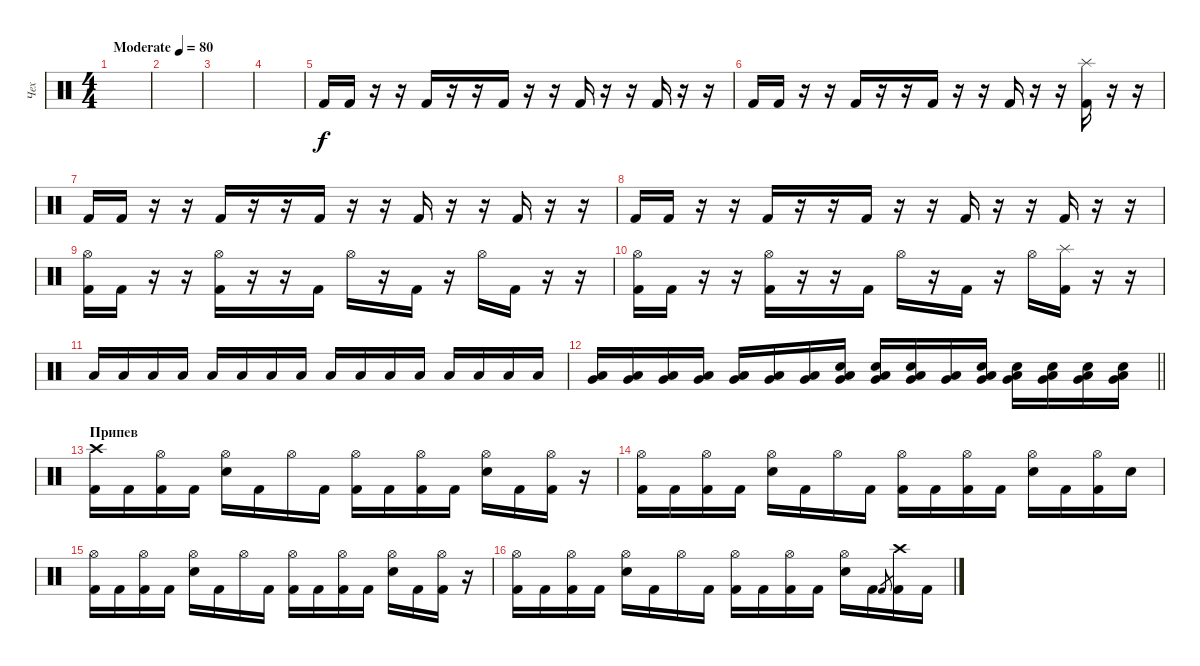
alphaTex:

\track ("Чех" "Чех") {instrument percussion}
\staff {score}
\articulation defaults
\ts (4 4)
\tempo (80 "Moderate")
\clef neutral
\ks c
|
|
|
|
"Kick (hit) 2".16 "Kick (hit) 2".16 r.16 r.16 "Kick (hit) 2".16 r.16 r.16 "Kick (hit) 2".16 r.16 r.16 "Kick (hit) 2".16 r.16 r.16 "Kick (hit) 2".16 r.16 r.16 |
"Kick (hit) 2".16 "Kick (hit) 2".16 r.16 r.16 "Kick (hit) 2".16 r.16 r.16 "Kick (hit) 2".16 r.16 r.16 "Kick (hit) 2".16 r.16 r.16 ("Kick (hit) 2" "Splash (hit)").16 r.16 r.16 |
"Kick (hit) 2".16 "Kick (hit) 2".16 r.16 r.16 "Kick (hit) 2".16 r.16 r.16 "Kick (hit) 2".16 r.16 r.16 "Kick (hit) 2".16 r.16 r.16 "Kick (hit) 2".16 r.16 r.16 |
"Kick (hit) 2".16 "Kick (hit) 2".16 r.16 r.16 "Kick (hit) 2".16 r.16 r.16 "Kick (hit) 2".16 r.16 r.16 "Kick (hit) 2".16 r.16 r.16 "Kick (hit) 2".16 r.16 r.16 |
("Kick (hit) 2" "Hi-Hat (open)").16 "Kick (hit) 2".16 r.16 r.16 ("Kick (hit) 2" "Hi-Hat (open)").16 r.16 r.16 "Kick (hit) 2".16 "Hi-Hat (open)".16 r.16 "Kick (hit) 2".16 r.16 "Hi-Hat (open)".16 "Kick (hit) 2".16 r.16 r.16 |
("Kick (hit) 2" "Hi-Hat (open)").16 "Kick (hit) 2".16 r.16 r.16 ("Kick (hit) 2" "Hi-Hat (open)").16 r.16 r.16 "Kick (hit) 2".16 "Hi-Hat (open)".16 r.16 "Kick (hit) 2".16 r.16 "Hi-Hat (open)".16 ("Kick (hit) 2" "Splash (hit)").16 r.16 r.16 |
"Low Tom (hit)".16 "Low Tom (hit)".16 "Low Tom (hit)".16 "Low Tom (hit)".16 "Low Tom (hit)".16 "Low Tom (hit)".16 "Low Tom (hit)".16 "Low Tom (hit)".16 "Low Tom (hit)".16 "Low Tom (hit)".16 "Low Tom (hit)".16 "Low Tom (hit)".16 "Low Tom (hit)".16 "Low Tom (hit)".16 "Low Tom (hit)".16 "Low Tom (hit)".16 |
\barLineRight lightlight
("Low Tom (hit)" "Very Low Tom (hit)").16 ("Low Tom (hit)" "Very Low Tom (hit)").16 ("Low Tom (hit)" "Very Low Tom (hit)").16 ("Low Tom (hit)" "Very Low Tom (hit)").16 ("Low Tom (hit)" "Very Low Tom (hit)").16 ("Low Tom (hit)" "Very Low Tom (hit)").16 ("Low Tom (hit)" "Very Low Tom (hit)").16 ("Low Tom (hit)" "Very Low Tom (hit)" "Snare (hit) 2").16 ("Low Tom (hit)" "Very Low Tom (hit)" "Snare (hit) 2").16 ("Low Tom (hit)" "Very Low Tom (hit)" "Snare (hit) 2").16 ("Low Tom (hit)" "Very Low Tom (hit)").16 ("Low Tom (hit)" "Very Low Tom (hit)" "Snare (hit) 2").16 ("Low Tom (hit)" "Very Low Tom (hit)" "Snare (hit) 2").16 ("Low Tom (hit)" "Very Low Tom (hit)" "Snare (hit) 2").16 ("Low Tom (hit)" "Very Low Tom (hit)" "Snare (hit) 2").16 ("Low Tom (hit)" "Very Low Tom (hit)" "Snare (hit) 2").16 |
\section ("" "Припев")
("Crash high (hit)" "Kick (hit) 2").16 "Kick (hit) 2".16 ("Hi-Hat (open)" "Kick (hit) 2").16 "Kick (hit) 2".16 ("Hi-Hat (open)" "Snare (hit) 2").16 "Kick (hit) 2".16 "Hi-Hat (open)".16 "Kick (hit) 2".16 ("Hi-Hat (open)" "Kick (hit) 2").16 "Kick (hit) 2".16 ("Hi-Hat (open)" "Kick (hit) 2").16 "Kick (hit) 2".16 ("Hi-Hat (open)" "Snare (hit) 2").16 "Kick (hit) 2".16 ("Hi-Hat (open)" "Kick (hit) 2").16 r.16 |
("Hi-Hat (open)" "Kick (hit) 2").16 "Kick (hit) 2".16 ("Hi-Hat (open)" "Kick (hit) 2").16 "Kick (hit) 2".16 ("Hi-Hat (open)" "Snare (hit) 2").16 "Kick (hit) 2".16 "Hi-Hat (open)".16 "Kick (hit) 2".16 ("Hi-Hat (open)" "Kick (hit) 2").16 "Kick (hit) 2".16 ("Hi-Hat (open)" "Kick (hit) 2").16 "Kick (hit) 2".16 ("Hi-Hat (open)" "Snare (hit) 2").16 "Kick (hit) 2".16 ("Hi-Hat (open)" "Kick (hit) 2").16 "Snare (hit) 2".16 |
("Hi-Hat (open)" "Kick (hit) 2").16 "Kick (hit) 2".16 ("Hi-Hat (open)" "Kick (hit) 2").16 "Kick (hit) 2".16 ("Hi-Hat (open)" "Snare (hit) 2").16 "Kick (hit) 2".16 "Hi-Hat (open)".16 "Kick (hit) 2".16 ("Hi-Hat (open)" "Kick (hit) 2").16 "Kick (hit) 2".16 ("Hi-Hat (open)" "Kick (hit) 2").16 "Kick (hit) 2".16 ("Hi-Hat (open)" "Snare (hit) 2").16 "Kick (hit) 2".16 ("Hi-Hat (open)" "Kick (hit) 2").16 r.16 |
("Hi-Hat (open)" "Kick (hit) 2").16 "Kick (hit) 2".16 ("Hi-Hat (open)" "Kick (hit) 2").16 "Kick (hit) 2".16 ("Hi-Hat (open)" "Snare (hit) 2").16 "Kick (hit) 2".16 "Hi-Hat (open)".16 "Kick (hit) 2".16 ("Hi-Hat (open)" "Kick (hit) 2").16 "Kick (hit) 2".16 ("Hi-Hat (open)" "Kick (hit) 2").16 "Kick (hit) 2".16 ("Hi-Hat (open)" "Snare (hit) 2").16 "Kick (hit) 2".16 "Kick (hit) 2".8{gr} ("Crash high (hit)" "Kick (hit) 2").16 "Kick (hit) 2".16
